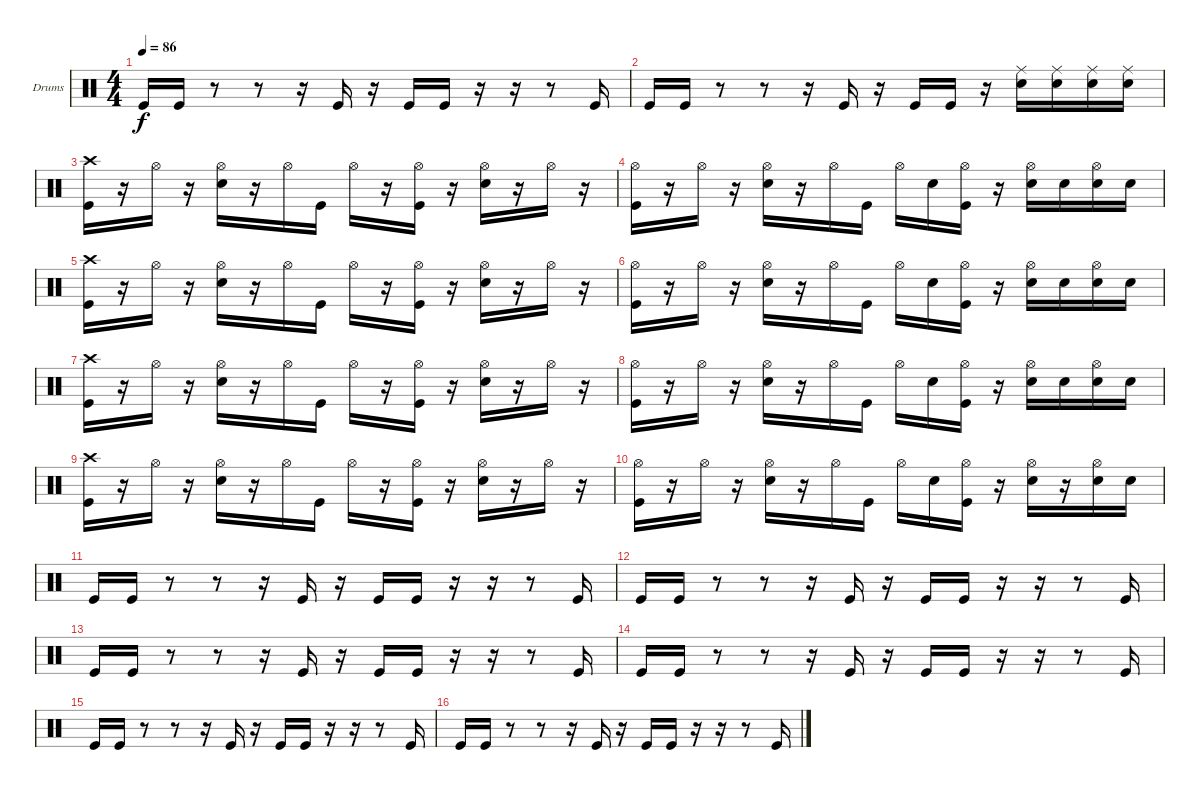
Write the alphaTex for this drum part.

\defaultSystemsLayout 4
\bracketExtendMode groupsimilarinstruments
\firstSystemTrackNameOrientation horizontal
\otherSystemsTrackNameOrientation horizontal
\track ("Rocky Gray (Drums)" "Drums") {instrument percussion}
\staff {score}
\articulation defaults
\ts (4 4)
\tempo 86
\clef neutral
\scale
0.333333
\ks c "Kick (hit)".16{dy f} "Kick (hit)".16
r.8 r.8 r.16 "Kick (hit)".16 r.16 "Kick (hit)".16 "Kick (hit)".16 r.16 r.16 r.8 "Kick (hit)".16 |
\scale
0.333333 "Kick (hit)".16 "Kick (hit)".16 r.8 r.8 r.16 "Kick (hit)".16 r.16 "Kick (hit)".16 "Kick (hit)".16 r.16 ("Ride (middle)" "Snare (hit) 2").16 ("Ride (middle)" "Snare (hit) 2").16 ("Ride (middle)" "Snare (hit) 2").16 ("Ride (middle)" "Snare (hit) 2").16 |
\scale
0.333333 ("Crash high (hit)" "Kick (hit)").16 r.16 "Hi-Hat (open)".16 r.16 ("Hi-Hat (open)" "Snare (hit) 2").16 r.16 "Hi-Hat (open)".16 "Kick (hit)".16 "Hi-Hat (open)".16 r.16 ("Hi-Hat (open)" "Kick (hit)").16 r.16 ("Hi-Hat (open)" "Snare (hit) 2").16 r.16 "Hi-Hat (open)".16 r.16 |
\scale
0.333333 ("Hi-Hat (open)" "Kick (hit)").16 r.16 "Hi-Hat (open)".16 r.16 ("Hi-Hat (open)" "Snare (hit) 2").16 r.16 "Hi-Hat (open)".16 "Kick (hit)".16 "Hi-Hat (open)".16 "Snare (hit) 2".16 ("Hi-Hat (open)" "Kick (hit)").16 r.16 ("Hi-Hat (open)" "Snare (hit) 2").16 "Snare (hit) 2".16 ("Hi-Hat (open)" "Snare (hit) 2").16 "Snare (hit) 2".16 |
\scale
0.333333 ("Crash high (hit)" "Kick (hit)").16 r.16 "Hi-Hat (open)".16 r.16 ("Hi-Hat (open)" "Snare (hit) 2").16 r.16 "Hi-Hat (open)".16 "Kick (hit)".16 "Hi-Hat (open)".16 r.16 ("Hi-Hat (open)" "Kick (hit)").16 r.16 ("Hi-Hat (open)" "Snare (hit) 2").16 r.16 "Hi-Hat (open)".16 r.16 |
\scale
0.333333 ("Hi-Hat (open)" "Kick (hit)").16 r.16 "Hi-Hat (open)".16 r.16 ("Hi-Hat (open)" "Snare (hit) 2").16 r.16 "Hi-Hat (open)".16 "Kick (hit)".16 "Hi-Hat (open)".16 "Snare (hit) 2".16 ("Hi-Hat (open)" "Kick (hit)").16 r.16 ("Hi-Hat (open)" "Snare (hit) 2").16 "Snare (hit) 2".16 ("Hi-Hat (open)" "Snare (hit) 2").16 "Snare (hit) 2".16 |
\scale
0.333333 ("Crash high (hit)" "Kick (hit)").16 r.16 "Hi-Hat (open)".16 r.16 ("Hi-Hat (open)" "Snare (hit) 2").16 r.16 "Hi-Hat (open)".16 "Kick (hit)".16 "Hi-Hat (open)".16 r.16 ("Hi-Hat (open)" "Kick (hit)").16 r.16 ("Hi-Hat (open)" "Snare (hit) 2").16 r.16 "Hi-Hat (open)".16 r.16 |
\scale
0.333333 ("Hi-Hat (open)" "Kick (hit)").16 r.16 "Hi-Hat (open)".16 r.16 ("Hi-Hat (open)" "Snare (hit) 2").16 r.16 "Hi-Hat (open)".16 "Kick (hit)".16 "Hi-Hat (open)".16 "Snare (hit) 2".16 ("Hi-Hat (open)" "Kick (hit)").16 r.16 ("Hi-Hat (open)" "Snare (hit) 2").16 "Snare (hit) 2".16 ("Hi-Hat (open)" "Snare (hit) 2").16 "Snare (hit) 2".16 |
\scale
0.333333 ("Crash high (hit)" "Kick (hit)").16 r.16 "Hi-Hat (open)".16 r.16 ("Hi-Hat (open)" "Snare (hit) 2").16 r.16 "Hi-Hat (open)".16 "Kick (hit)".16 "Hi-Hat (open)".16 r.16 ("Hi-Hat (open)" "Kick (hit)").16 r.16 ("Hi-Hat (open)" "Snare (hit) 2").16 r.16 "Hi-Hat (open)".16 r.16 |
\scale
0.333333 ("Hi-Hat (open)" "Kick (hit)").16 r.16 "Hi-Hat (open)".16 r.16 ("Hi-Hat (open)" "Snare (hit) 2").16 r.16 "Hi-Hat (open)".16 "Kick (hit)".16 "Hi-Hat (open)".16 "Snare (hit) 2".16 ("Hi-Hat (open)" "Kick (hit)").16 r.16 ("Hi-Hat (open)" "Snare (hit) 2").16 r.16 ("Hi-Hat (open)" "Snare (hit) 2").16 "Snare (hit) 2".16 |
\scale
0.333333 "Kick (hit)".16 "Kick (hit)".16 r.8 r.8 r.16 "Kick (hit)".16 r.16 "Kick (hit)".16 "Kick (hit)".16 r.16 r.16 r.8 "Kick (hit)".16 |
\scale
0.333333 "Kick (hit)".16 "Kick (hit)".16 r.8 r.8 r.16 "Kick (hit)".16 r.16 "Kick (hit)".16 "Kick (hit)".16 r.16 r.16 r.8 "Kick (hit)".16 |
\scale
0.333333 "Kick (hit)".16 "Kick (hit)".16 r.8 r.8 r.16 "Kick (hit)".16 r.16 "Kick (hit)".16 "Kick (hit)".16 r.16 r.16 r.8 "Kick (hit)".16 |
\scale
0.333333 "Kick (hit)".16 "Kick (hit)".16 r.8 r.8 r.16 "Kick (hit)".16 r.16 "Kick (hit)".16 "Kick (hit)".16 r.16 r.16 r.8 "Kick (hit)".16 |
\scale
0.333333 "Kick (hit)".16 "Kick (hit)".16 r.8 r.8 r.16 "Kick (hit)".16 r.16 "Kick (hit)".16 "Kick (hit)".16 r.16 r.16 r.8 "Kick (hit)".16 |
\scale
0.333333 "Kick (hit)".16 "Kick (hit)".16 r.8 r.8 r.16 "Kick (hit)".16 r.16 "Kick (hit)".16 "Kick (hit)".16 r.16 r.16 r.8 "Kick (hit)".16
